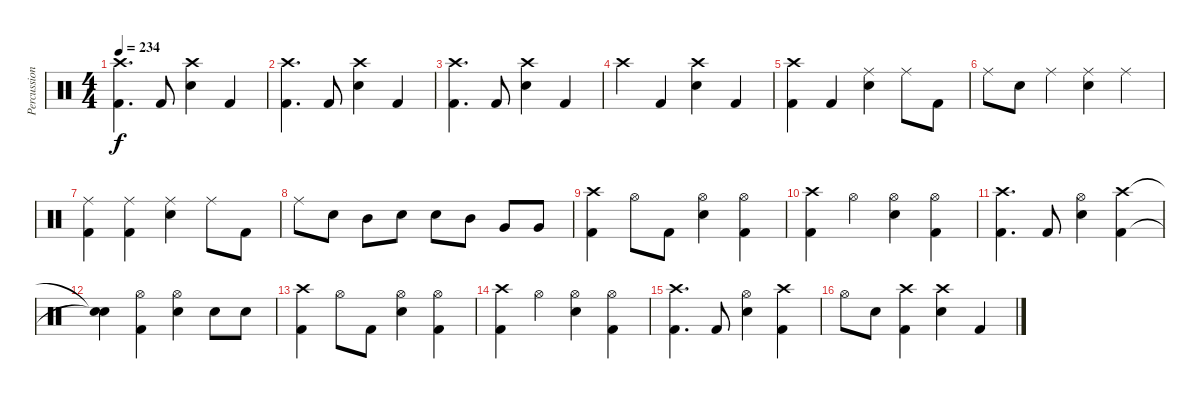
\track ("Percussions" "Percussion") {instrument percussion}
\staff {score}
\articulation defaults
\ts (4 4)
\tempo 234
\clef neutral
\ks c
("Crash high (hit)" "Kick (hit) 2").4{d dy f} "Kick (hit) 2".8 ("Crash high (hit)" "Snare (hit) 2").4 "Kick (hit) 2".4 |
("Crash high (hit)" "Kick (hit) 2").4{d} "Kick (hit) 2".8 ("Crash high (hit)" "Snare (hit) 2").4 "Kick (hit) 2".4 |
("Crash high (hit)" "Kick (hit) 2").4{d} "Kick (hit) 2".8 ("Crash high (hit)" "Snare (hit) 2").4 "Kick (hit) 2".4 |
"Crash high (hit)".4 "Kick (hit) 2".4 ("Crash high (hit)" "Snare (hit) 2").4 "Kick (hit) 2".4 |
("Crash high (hit)" "Kick (hit) 2").4 "Kick (hit) 2".4 ("Ride (middle)" "Snare (hit) 2").4 "Ride (middle)".8 "Kick (hit) 2".8 |
"Ride (middle)".8 "Snare (hit) 2".8 "Ride (middle)".4 ("Ride (middle)" "Snare (hit) 2").4 "Ride (middle)".4 |
("Ride (middle)" "Kick (hit) 2").4 ("Ride (middle)" "Kick (hit) 2").4 ("Ride (middle)" "Snare (hit) 2").4 "Ride (middle)".8 "Kick (hit) 2".8 |
"Ride (middle)".8 "Snare (hit) 2".8 "Mid Tom (hit)".8 "Snare (hit) 2".8 "Snare (hit) 2".8 "Mid Tom (hit)".8 "Very Low Tom (hit)".8 "Very Low Tom (hit)".8 |
("Crash high (hit)" "Kick (hit) 2").4 "Hi-Hat (open)".8 "Kick (hit) 2".8 ("Hi-Hat (open)" "Snare (hit) 2").4 ("Hi-Hat (open)" "Kick (hit) 2").4 |
("Crash high (hit)" "Kick (hit) 2").4 "Hi-Hat (open)".4 ("Hi-Hat (open)" "Snare (hit) 2").4 ("Hi-Hat (open)" "Kick (hit) 2").4 |
("Crash high (hit)" "Kick (hit) 2").4{d} "Kick (hit) 2".8 ("Hi-Hat (open)" "Snare (hit) 2").4 ("Crash high (hit)" "Kick (hit) 2").4 |
("Snare (hit)"{t} "Snare (hit)"{t}).4 ("Hi-Hat (open)" "Kick (hit) 2").4 ("Hi-Hat (open)" "Snare (hit) 2").4 "Snare (hit) 2".8 "Snare (hit) 2".8 |
("Crash high (hit)" "Kick (hit) 2").4 "Hi-Hat (open)".8 "Kick (hit) 2".8 ("Hi-Hat (open)" "Snare (hit) 2").4 ("Hi-Hat (open)" "Kick (hit) 2").4 |
("Crash high (hit)" "Kick (hit) 2").4 "Hi-Hat (open)".4 ("Hi-Hat (open)" "Snare (hit) 2").4 ("Hi-Hat (open)" "Kick (hit) 2").4 |
("Crash high (hit)" "Kick (hit) 2").4{d} "Kick (hit) 2".8 ("Hi-Hat (open)" "Snare (hit) 2").4 ("Crash high (hit)" "Kick (hit) 2").4 |
"Hi-Hat (open)".8 "Snare (hit) 2".8 ("Crash high (hit)" "Kick (hit) 2").4 ("Crash high (hit)" "Snare (hit) 2").4 "Kick (hit) 2".4
